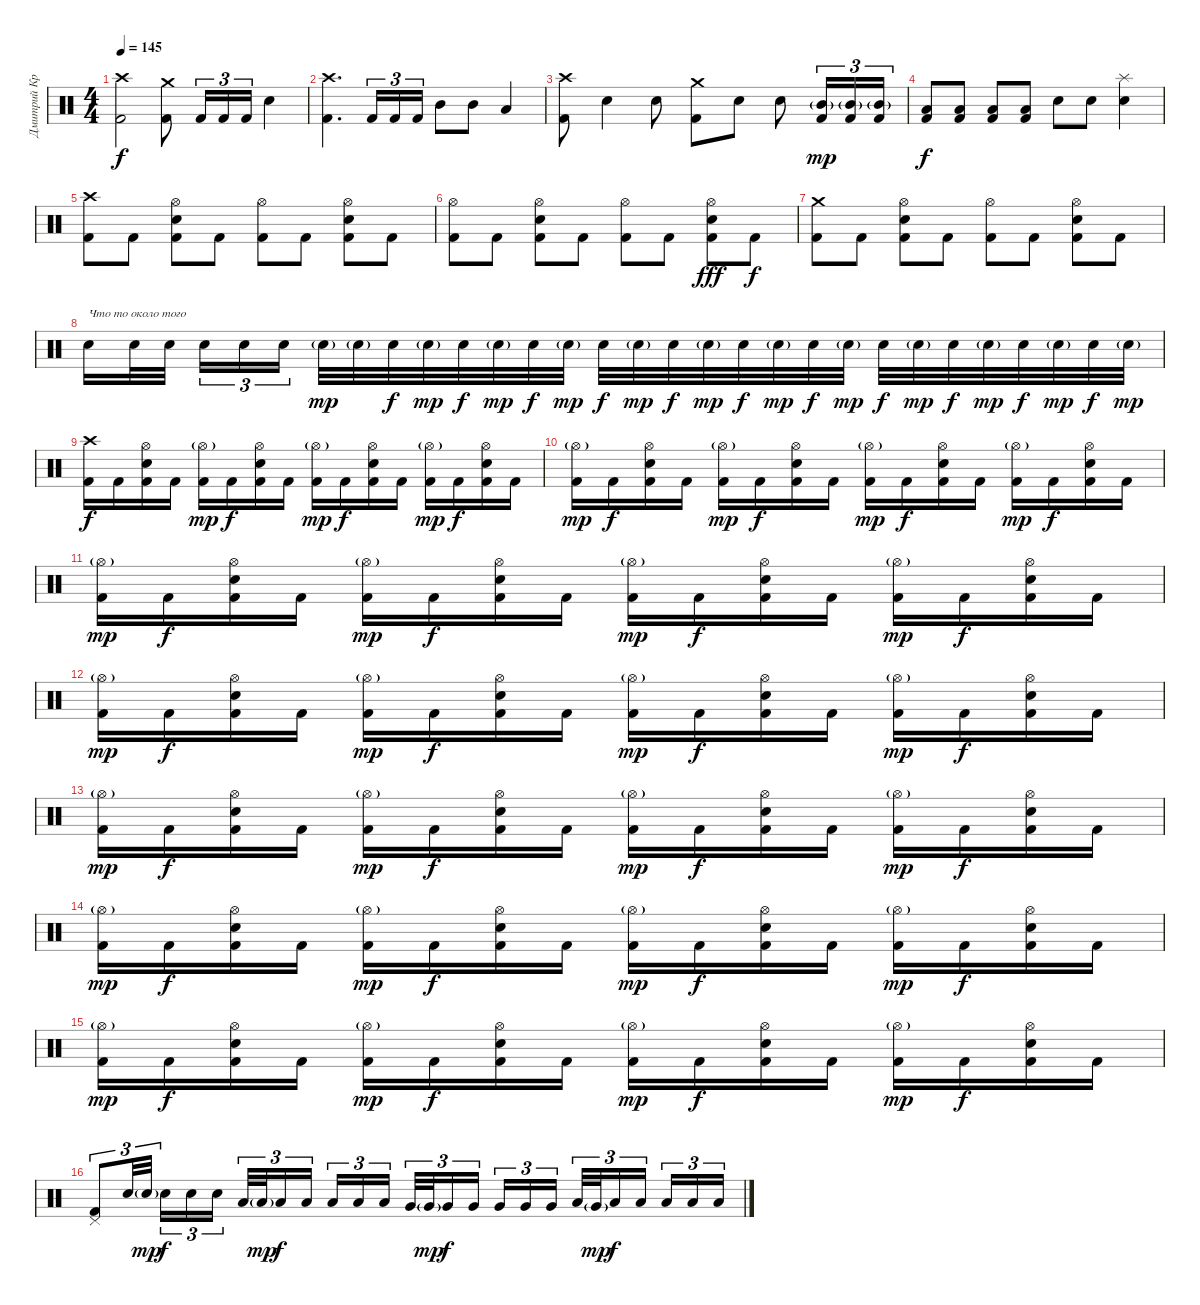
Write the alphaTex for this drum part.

\track ("Дмитрий Кривенков" "Дмитрий Кр") {instrument percussion}
\staff {score}
\articulation defaults
\ts (4 4)
\tempo 145
\clef neutral
\ks c
("Crash high (hit)" "Kick (hit) 2").2{dy f} ("Crash medium (hit)" "Kick (hit) 2").8 "Kick (hit) 2".16{tu (3 2)} "Kick (hit) 2".16{tu (3 2)} "Kick (hit) 2".16{tu (3 2)} "Electric Snare (hit)".4 |
("Crash high (hit)" "Kick (hit) 2").4{d} "Kick (hit) 2".16{tu (3 2)} "Kick (hit) 2".16{tu (3 2)} "Kick (hit) 2".16{tu (3 2)} "Mid Tom (hit)".8 "Mid Tom (hit)".8 "Low Tom (hit)".4 |
("Crash high (hit)" "Kick (hit) 2").8 "Electric Snare (hit)".4 "Electric Snare (hit)".8 ("Crash medium (hit)" "Kick (hit) 2").8 "Electric Snare (hit)".8 "Electric Snare (hit)".8 ("Mid Tom (hit)"{g} "Kick (hit) 2").16{tu (3 2) dy mp} ("Mid Tom (hit)"{g} "Kick (hit) 2").16{tu (3 2)} ("Mid Tom (hit)"{g} "Kick (hit) 2").16{tu (3 2)} |
("Low Tom (hit)" "Kick (hit) 2").8{dy f} ("Low Tom (hit)" "Kick (hit) 2").8 ("Low Tom (hit)" "Kick (hit) 2").8 ("Low Tom (hit)" "Kick (hit) 2").8 "Electric Snare (hit)".8 "Electric Snare (hit)".8 ("Splash (hit)" "Electric Snare (hit)").4 |
("Crash high (hit)" "Kick (hit) 2").8 "Kick (hit) 2".8 ("Hi-Hat (open)" "Electric Snare (hit)" "Kick (hit) 2").8 "Kick (hit) 2".8 ("Hi-Hat (open)" "Kick (hit) 2").8 "Kick (hit) 2".8 ("Hi-Hat (open)" "Electric Snare (hit)" "Kick (hit) 2").8 "Kick (hit) 2".8 |
("Hi-Hat (open)" "Kick (hit) 2").8 "Kick (hit) 2".8 ("Hi-Hat (open)" "Electric Snare (hit)" "Kick (hit) 2").8 "Kick (hit) 2".8 ("Hi-Hat (open)" "Kick (hit) 2").8 "Kick (hit) 2".8 ("Hi-Hat (open)" "Electric Snare (hit)" "Kick (hit) 2").8{dy fff} "Kick (hit) 2".8{dy f} |
("Crash medium (hit)" "Kick (hit) 2").8 "Kick (hit) 2".8 ("Hi-Hat (open)" "Electric Snare (hit)" "Kick (hit) 2").8 "Kick (hit) 2".8 ("Hi-Hat (open)" "Kick (hit) 2").8 "Kick (hit) 2".8 ("Hi-Hat (open)" "Electric Snare (hit)" "Kick (hit) 2").8 "Kick (hit) 2".8 |
"Electric Snare (hit)".16{txt "Что то около того"} "Electric Snare (hit)".32 "Electric Snare (hit)".32{beam splitsecondary} "Electric Snare (hit)".16{tu (3 2)} "Electric Snare (hit)".16{tu (3 2)} "Electric Snare (hit)".16{tu (3 2)} "Electric Snare (hit)"{g}.32{dy mp} "Electric Snare (hit)"{g}.32 "Electric Snare (hit)".32{dy f} "Electric Snare (hit)"{g}.32{dy mp} "Electric Snare (hit)".32{dy f} "Electric Snare (hit)"{g}.32{dy mp} "Electric Snare (hit)".32{dy f} "Electric Snare (hit)"{g}.32{dy mp} "Electric Snare (hit)".32{dy f} "Electric Snare (hit)"{g}.32{dy mp} "Electric Snare (hit)".32{dy f} "Electric Snare (hit)"{g}.32{dy mp} "Electric Snare (hit)".32{dy f} "Electric Snare (hit)"{g}.32{dy mp} "Electric Snare (hit)".32{dy f} "Electric Snare (hit)"{g}.32{dy mp} "Electric Snare (hit)".32{dy f} "Electric Snare (hit)"{g}.32{dy mp} "Electric Snare (hit)".32{dy f} "Electric Snare (hit)"{g}.32{dy mp} "Electric Snare (hit)".32{dy f} "Electric Snare (hit)"{g}.32{dy mp} "Electric Snare (hit)".32{dy f} "Electric Snare (hit)"{g}.32{dy mp} |
("Crash high (hit)" "Kick (hit) 2").16{dy f} "Kick (hit) 2".16 ("Hi-Hat (open)" "Electric Snare (hit)" "Kick (hit) 2").16 "Kick (hit) 2".16 ("Hi-Hat (open)"{g} "Kick (hit) 2").16{dy mp} "Kick (hit) 2".16{dy f} ("Hi-Hat (open)" "Electric Snare (hit)" "Kick (hit) 2").16 "Kick (hit) 2".16 ("Hi-Hat (open)"{g} "Kick (hit) 2").16{dy mp} "Kick (hit) 2".16{dy f} ("Hi-Hat (open)" "Electric Snare (hit)" "Kick (hit) 2").16 "Kick (hit) 2".16 ("Hi-Hat (open)"{g} "Kick (hit) 2").16{dy mp} "Kick (hit) 2".16{dy f} ("Hi-Hat (open)" "Electric Snare (hit)" "Kick (hit) 2").16 "Kick (hit) 2".16 |
("Hi-Hat (open)"{g} "Kick (hit) 2").16{dy mp} "Kick (hit) 2".16{dy f} ("Hi-Hat (open)" "Electric Snare (hit)" "Kick (hit) 2").16 "Kick (hit) 2".16 ("Hi-Hat (open)"{g} "Kick (hit) 2").16{dy mp} "Kick (hit) 2".16{dy f} ("Hi-Hat (open)" "Electric Snare (hit)" "Kick (hit) 2").16 "Kick (hit) 2".16 ("Hi-Hat (open)"{g} "Kick (hit) 2").16{dy mp} "Kick (hit) 2".16{dy f} ("Hi-Hat (open)" "Electric Snare (hit)" "Kick (hit) 2").16 "Kick (hit) 2".16 ("Hi-Hat (open)"{g} "Kick (hit) 2").16{dy mp} "Kick (hit) 2".16{dy f} ("Hi-Hat (open)" "Electric Snare (hit)" "Kick (hit) 2").16 "Kick (hit) 2".16 |
("Hi-Hat (open)"{g} "Kick (hit) 2").16{dy mp} "Kick (hit) 2".16{dy f} ("Hi-Hat (open)" "Electric Snare (hit)" "Kick (hit) 2").16 "Kick (hit) 2".16 ("Hi-Hat (open)"{g} "Kick (hit) 2").16{dy mp} "Kick (hit) 2".16{dy f} ("Hi-Hat (open)" "Electric Snare (hit)" "Kick (hit) 2").16 "Kick (hit) 2".16 ("Hi-Hat (open)"{g} "Kick (hit) 2").16{dy mp} "Kick (hit) 2".16{dy f} ("Hi-Hat (open)" "Electric Snare (hit)" "Kick (hit) 2").16 "Kick (hit) 2".16 ("Hi-Hat (open)"{g} "Kick (hit) 2").16{dy mp} "Kick (hit) 2".16{dy f} ("Hi-Hat (open)" "Electric Snare (hit)" "Kick (hit) 2").16 "Kick (hit) 2".16 |
("Hi-Hat (open)"{g} "Kick (hit) 2").16{dy mp} "Kick (hit) 2".16{dy f} ("Hi-Hat (open)" "Electric Snare (hit)" "Kick (hit) 2").16 "Kick (hit) 2".16 ("Hi-Hat (open)"{g} "Kick (hit) 2").16{dy mp} "Kick (hit) 2".16{dy f} ("Hi-Hat (open)" "Electric Snare (hit)" "Kick (hit) 2").16 "Kick (hit) 2".16 ("Hi-Hat (open)"{g} "Kick (hit) 2").16{dy mp} "Kick (hit) 2".16{dy f} ("Hi-Hat (open)" "Electric Snare (hit)" "Kick (hit) 2").16 "Kick (hit) 2".16 ("Hi-Hat (open)"{g} "Kick (hit) 2").16{dy mp} "Kick (hit) 2".16{dy f} ("Hi-Hat (open)" "Electric Snare (hit)" "Kick (hit) 2").16 "Kick (hit) 2".16 |
("Hi-Hat (open)"{g} "Kick (hit) 2").16{dy mp} "Kick (hit) 2".16{dy f} ("Hi-Hat (open)" "Electric Snare (hit)" "Kick (hit) 2").16 "Kick (hit) 2".16 ("Hi-Hat (open)"{g} "Kick (hit) 2").16{dy mp} "Kick (hit) 2".16{dy f} ("Hi-Hat (open)" "Electric Snare (hit)" "Kick (hit) 2").16 "Kick (hit) 2".16 ("Hi-Hat (open)"{g} "Kick (hit) 2").16{dy mp} "Kick (hit) 2".16{dy f} ("Hi-Hat (open)" "Electric Snare (hit)" "Kick (hit) 2").16 "Kick (hit) 2".16 ("Hi-Hat (open)"{g} "Kick (hit) 2").16{dy mp} "Kick (hit) 2".16{dy f} ("Hi-Hat (open)" "Electric Snare (hit)" "Kick (hit) 2").16 "Kick (hit) 2".16 |
("Hi-Hat (open)"{g} "Kick (hit) 2").16{dy mp} "Kick (hit) 2".16{dy f} ("Hi-Hat (open)" "Electric Snare (hit)" "Kick (hit) 2").16 "Kick (hit) 2".16 ("Hi-Hat (open)"{g} "Kick (hit) 2").16{dy mp} "Kick (hit) 2".16{dy f} ("Hi-Hat (open)" "Electric Snare (hit)" "Kick (hit) 2").16 "Kick (hit) 2".16 ("Hi-Hat (open)"{g} "Kick (hit) 2").16{dy mp} "Kick (hit) 2".16{dy f} ("Hi-Hat (open)" "Electric Snare (hit)" "Kick (hit) 2").16 "Kick (hit) 2".16 ("Hi-Hat (open)"{g} "Kick (hit) 2").16{dy mp} "Kick (hit) 2".16{dy f} ("Hi-Hat (open)" "Electric Snare (hit)" "Kick (hit) 2").16 "Kick (hit) 2".16 |
("Hi-Hat (open)"{g} "Kick (hit) 2").16{dy mp} "Kick (hit) 2".16{dy f} ("Hi-Hat (open)" "Electric Snare (hit)" "Kick (hit) 2").16 "Kick (hit) 2".16 ("Hi-Hat (open)"{g} "Kick (hit) 2").16{dy mp} "Kick (hit) 2".16{dy f} ("Hi-Hat (open)" "Electric Snare (hit)" "Kick (hit) 2").16 "Kick (hit) 2".16 ("Hi-Hat (open)"{g} "Kick (hit) 2").16{dy mp} "Kick (hit) 2".16{dy f} ("Hi-Hat (open)" "Electric Snare (hit)" "Kick (hit) 2").16 "Kick (hit) 2".16 ("Hi-Hat (open)"{g} "Kick (hit) 2").16{dy mp} "Kick (hit) 2".16{dy f} ("Hi-Hat (open)" "Electric Snare (hit)" "Kick (hit) 2").16 "Kick (hit) 2".16 |
("Pedal Hi-Hat (hit)" "Kick (hit) 2").8{tu (3 2)} "Electric Snare (hit)".32{tu (3 2)} "Electric Snare (hit)"{g}.32{tu (3 2) dy mp beam splitsecondary} "Electric Snare (hit)".16{tu (3 2) dy f} "Electric Snare (hit)".16{tu (3 2)} "Electric Snare (hit)".16{tu (3 2)} "Low Tom (hit)".32{tu (3 2)} "Low Tom (hit)"{g}.32{tu (3 2) dy mp} "Low Tom (hit)".16{tu (3 2) dy f} "Low Tom (hit)".16{tu (3 2) beam splitsecondary} "Low Tom (hit)".16{tu (3 2)} "Low Tom (hit)".16{tu (3 2)} "Low Tom (hit)".16{tu (3 2)} "Very Low Tom (hit)".32{tu (3 2)} "Very Low Tom (hit)"{g}.32{tu (3 2) dy mp} "Very Low Tom (hit)".16{tu (3 2) dy f} "Very Low Tom (hit)".16{tu (3 2) beam splitsecondary} "Very Low Tom (hit)".16{tu (3 2)} "Very Low Tom (hit)".16{tu (3 2)} "Very Low Tom (hit)".16{tu (3 2)} "Low Floor Tom (hit)".32{tu (3 2)} "Very Low Tom (hit)"{g}.32{tu (3 2) dy mp} "Low Floor Tom (hit)".16{tu (3 2) dy f} "Low Floor Tom (hit)".16{tu (3 2) beam splitsecondary} "Low Floor Tom (hit)".16{tu (3 2)} "Low Floor Tom (hit)".16{tu (3 2)} "Low Floor Tom (hit)".16{tu (3 2)}
